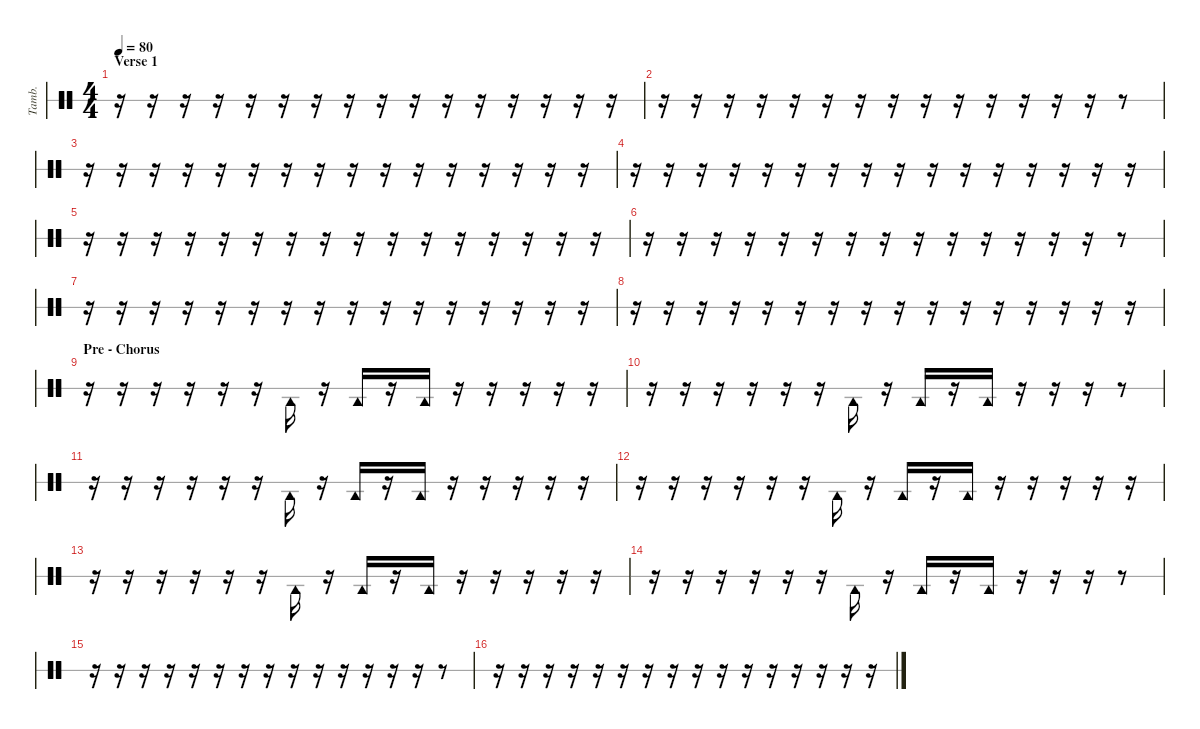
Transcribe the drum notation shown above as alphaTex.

\hideDynamics
\bracketExtendMode nobrackets
\otherSystemsTrackNameOrientation horizontal
\track ("Tambourine" "Tamb.") {instrument percussion}
\staff {score 1}
\articulation defaults
\ts (4 4)
\section ("" "Verse 1")
\tempo 80
\clef neutral
\ks c
r.16{dy f beam Down} r.16{beam Down} r.16{beam Down} r.16{beam Down} r.16{beam Down} r.16{beam Down} r.16{beam Down} r.16{beam Down} r.16{beam Down} r.16{beam Down} r.16{beam Down} r.16{beam Down} r.16{beam Down} r.16{beam Down} r.16{beam Down} r.16{beam Down} |
r.16{beam Down} r.16{beam Down} r.16{beam Down} r.16{beam Down} r.16{beam Down} r.16{beam Down} r.16{beam Down} r.16{beam Down} r.16{beam Down} r.16{beam Down} r.16{beam Down} r.16{beam Down} r.16{beam Down} r.16{beam Down} r.8{beam Down} |
r.16{beam Down} r.16{beam Down} r.16{beam Down} r.16{beam Down} r.16{beam Down} r.16{beam Down} r.16{beam Down} r.16{beam Down} r.16{beam Down} r.16{beam Down} r.16{beam Down} r.16{beam Down} r.16{beam Down} r.16{beam Down} r.16{beam Down} r.16{beam Down} |
r.16{beam Down} r.16{beam Down} r.16{beam Down} r.16{beam Down} r.16{beam Down} r.16{beam Down} r.16{beam Down} r.16{beam Down} r.16{beam Down} r.16{beam Down} r.16{beam Down} r.16{beam Down} r.16{beam Down} r.16{beam Down} r.16{beam Down} r.16{beam Down} |
r.16{beam Down} r.16{beam Down} r.16{beam Down} r.16{beam Down} r.16{beam Down} r.16{beam Down} r.16{beam Down} r.16{beam Down} r.16{beam Down} r.16{beam Down} r.16{beam Down} r.16{beam Down} r.16{beam Down} r.16{beam Down} r.16{beam Down} r.16{beam Down} |
r.16{beam Down} r.16{beam Down} r.16{beam Down} r.16{beam Down} r.16{beam Down} r.16{beam Down} r.16{beam Down} r.16{beam Down} r.16{beam Down} r.16{beam Down} r.16{beam Down} r.16{beam Down} r.16{beam Down} r.16{beam Down} r.8{beam Down} |
r.16{beam Down} r.16{beam Down} r.16{beam Down} r.16{beam Down} r.16{beam Down} r.16{beam Down} r.16{beam Down} r.16{beam Down} r.16{beam Down} r.16{beam Down} r.16{beam Down} r.16{beam Down} r.16{beam Down} r.16{beam Down} r.16{beam Down} r.16{beam Down} |
r.16{beam Down} r.16{beam Down} r.16{beam Down} r.16{beam Down} r.16{beam Down} r.16{beam Down} r.16{beam Down} r.16{beam Down} r.16{beam Down} r.16{beam Down} r.16{beam Down} r.16{beam Down} r.16{beam Down} r.16{beam Down} r.16{beam Down} r.16{beam Down} |
\section ("" "Pre - Chorus")
r.16{beam Down} r.16{beam Down} r.16{beam Down} r.16{beam Down} r.16{beam Down} r.16{beam Down} "Tambourine (hit)".16{beam Down} r.16{beam Down} "Tambourine (hit)".16{beam Up} r.16{beam Up} "Tambourine (hit)".16{beam Up} r.16{beam Up} r.16{beam Up} r.16{beam Up} r.16{beam Up} r.16{beam Up} |
r.16{beam Down} r.16{beam Down} r.16{beam Down} r.16{beam Down} r.16{beam Down} r.16{beam Down} "Tambourine (hit)".16{beam Down} r.16{beam Down} "Tambourine (hit)".16{beam Up} r.16{beam Up} "Tambourine (hit)".16{beam Up} r.16{beam Up} r.16{beam Up} r.16{beam Up} r.8{beam Up} |
r.16{beam Down} r.16{beam Down} r.16{beam Down} r.16{beam Down} r.16{beam Down} r.16{beam Down} "Tambourine (hit)".16{beam Down} r.16{beam Down} "Tambourine (hit)".16{beam Up} r.16{beam Up} "Tambourine (hit)".16{beam Up} r.16{beam Up} r.16{beam Up} r.16{beam Up} r.16{beam Up} r.16{beam Up} |
r.16{beam Down} r.16{beam Down} r.16{beam Down} r.16{beam Down} r.16{beam Down} r.16{beam Down} "Tambourine (hit)".16{beam Down} r.16{beam Down} "Tambourine (hit)".16{beam Up} r.16{beam Up} "Tambourine (hit)".16{beam Up} r.16{beam Up} r.16{beam Up} r.16{beam Up} r.16{beam Up} r.16{beam Up} |
r.16{beam Down} r.16{beam Down} r.16{beam Down} r.16{beam Down} r.16{beam Down} r.16{beam Down} "Tambourine (hit)".16{beam Down} r.16{beam Down} "Tambourine (hit)".16{beam Up} r.16{beam Up} "Tambourine (hit)".16{beam Up} r.16{beam Up} r.16{beam Up} r.16{beam Up} r.16{beam Up} r.16{beam Up} |
r.16{beam Down} r.16{beam Down} r.16{beam Down} r.16{beam Down} r.16{beam Down} r.16{beam Down} "Tambourine (hit)".16{beam Down} r.16{beam Down} "Tambourine (hit)".16{beam Up} r.16{beam Up} "Tambourine (hit)".16{beam Up} r.16{beam Up} r.16{beam Up} r.16{beam Up} r.8{beam Up} |
r.16{beam Down} r.16{beam Down} r.16{beam Down} r.16{beam Down} r.16{beam Down} r.16{beam Down} r.16{beam Down} r.16{beam Down} r.16{beam Down} r.16{beam Down} r.16{beam Down} r.16{beam Down} r.16{beam Down} r.16{beam Down} r.8{beam Down} |
r.16{beam Down} r.16{beam Down} r.16{beam Down} r.16{beam Down} r.16{beam Down} r.16{beam Down} r.16{beam Down} r.16{beam Down} r.16{beam Down} r.16{beam Down} r.16{beam Down} r.16{beam Down} r.16{beam Down} r.16{beam Down} r.16{beam Down} r.16{beam Down}
